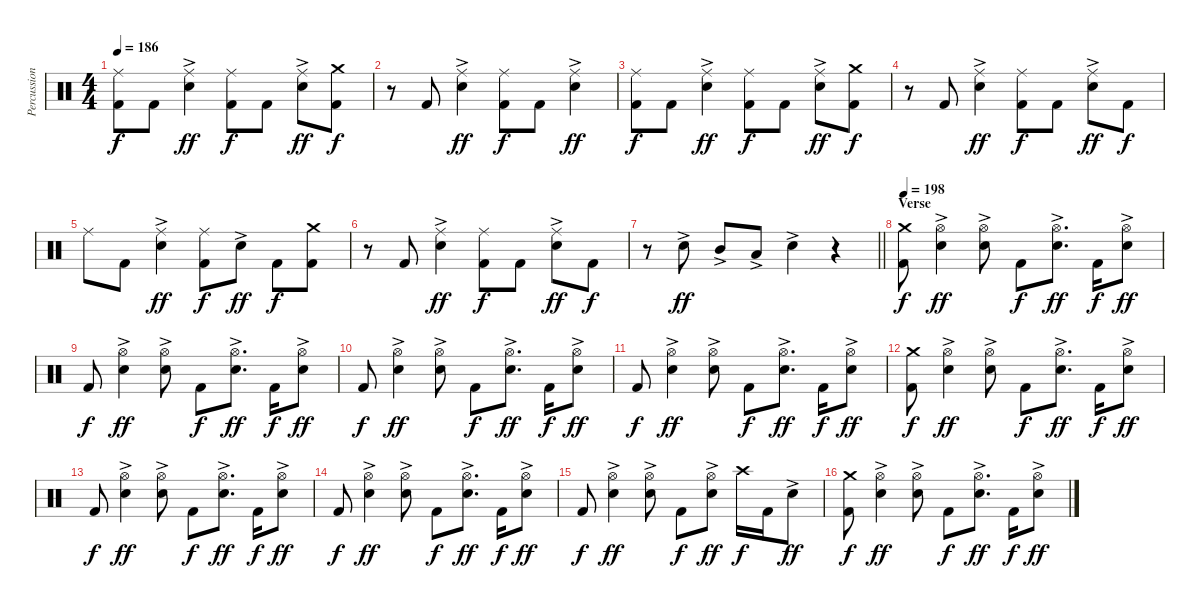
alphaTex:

\track ("Percussion" "Percussion") {instrument percussion}
\staff {score}
\articulation defaults
\ts (4 4)
\tempo 186
\clef neutral
\ks c
("Ride (middle)" "Kick (hit) 2").8{dy f} "Kick (hit) 2".8 ("Ride (middle)" "Electric Snare (hit)"{ac}).4{dy ff} ("Ride (middle)" "Kick (hit) 2").8{dy f} "Kick (hit) 2".8 ("Ride (middle)" "Electric Snare (hit)"{ac}).8{dy ff} ("Crash medium (hit)" "Kick (hit) 2").8{dy f} |
r.8 "Kick (hit) 2".8 ("Ride (middle)" "Electric Snare (hit)"{ac}).4{dy ff} ("Ride (middle)" "Kick (hit) 2").8{dy f} "Kick (hit) 2".8 ("Ride (middle)" "Electric Snare (hit)"{ac}).4{dy ff} |
("Ride (middle)" "Kick (hit) 2").8{dy f} "Kick (hit) 2".8 ("Ride (middle)" "Electric Snare (hit)"{ac}).4{dy ff} ("Ride (middle)" "Kick (hit) 2").8{dy f} "Kick (hit) 2".8 ("Ride (middle)" "Electric Snare (hit)"{ac}).8{dy ff} ("Crash medium (hit)" "Kick (hit) 2").8{dy f} |
r.8 "Kick (hit) 2".8 ("Ride (middle)" "Electric Snare (hit)"{ac}).4{dy ff} ("Ride (middle)" "Kick (hit) 2").8{dy f} "Kick (hit) 2".8 ("Ride (middle)" "Electric Snare (hit)"{ac}).8{dy ff} "Kick (hit) 2".8{dy f} |
"Ride (middle)".8 "Kick (hit) 2".8 ("Ride (middle)" "Electric Snare (hit)"{ac}).4{dy ff} ("Ride (middle)" "Kick (hit) 2").8{dy f} "Electric Snare (hit)"{ac}.8{dy ff} "Kick (hit) 2".8{dy f} ("Crash medium (hit)" "Kick (hit) 2").8 |
r.8 "Kick (hit) 2".8 ("Ride (middle)" "Electric Snare (hit)"{ac}).4{dy ff} ("Ride (middle)" "Kick (hit) 2").8{dy f} "Kick (hit) 2".8 ("Ride (middle)" "Electric Snare (hit)"{ac}).8{dy ff} "Kick (hit) 2".8{dy f} |
\barLineRight lightlight
r.8 "Electric Snare (hit)"{ac}.8{dy ff} "Mid Tom (hit)"{ac}.8 "Low Tom (hit)"{ac}.8 "Electric Snare (hit)"{ac}.4 r.4 |
\section ("" "Verse")
\tempo 198
("Crash medium (hit)" "Kick (hit) 2").8{dy f} ("Hi-Hat (open)" "Electric Snare (hit)"{ac}).4{dy ff} ("Hi-Hat (open)" "Electric Snare (hit)"{ac}).8 "Kick (hit) 2".8{dy f} ("Hi-Hat (open)" "Electric Snare (hit)"{ac}).8{d dy ff} "Kick (hit) 2".16{dy f} ("Hi-Hat (open)" "Electric Snare (hit)"{ac}).8{dy ff} |
"Kick (hit) 2".8{dy f} ("Hi-Hat (open)" "Electric Snare (hit)"{ac}).4{dy ff} ("Hi-Hat (open)" "Electric Snare (hit)"{ac}).8 "Kick (hit) 2".8{dy f} ("Hi-Hat (open)" "Electric Snare (hit)"{ac}).8{d dy ff} "Kick (hit) 2".16{dy f} ("Hi-Hat (open)" "Electric Snare (hit)"{ac}).8{dy ff} |
"Kick (hit) 2".8{dy f} ("Hi-Hat (open)" "Electric Snare (hit)"{ac}).4{dy ff} ("Hi-Hat (open)" "Electric Snare (hit)"{ac}).8 "Kick (hit) 2".8{dy f} ("Hi-Hat (open)" "Electric Snare (hit)"{ac}).8{d dy ff} "Kick (hit) 2".16{dy f} ("Hi-Hat (open)" "Electric Snare (hit)"{ac}).8{dy ff} |
"Kick (hit) 2".8{dy f} ("Hi-Hat (open)" "Electric Snare (hit)"{ac}).4{dy ff} ("Hi-Hat (open)" "Electric Snare (hit)"{ac}).8 "Kick (hit) 2".8{dy f} ("Hi-Hat (open)" "Electric Snare (hit)"{ac}).8{d dy ff} "Kick (hit) 2".16{dy f} ("Hi-Hat (open)" "Electric Snare (hit)"{ac}).8{dy ff} |
("Crash medium (hit)" "Kick (hit) 2").8{dy f} ("Hi-Hat (open)" "Electric Snare (hit)"{ac}).4{dy ff} ("Hi-Hat (open)" "Electric Snare (hit)"{ac}).8 "Kick (hit) 2".8{dy f} ("Hi-Hat (open)" "Electric Snare (hit)"{ac}).8{d dy ff} "Kick (hit) 2".16{dy f} ("Hi-Hat (open)" "Electric Snare (hit)"{ac}).8{dy ff} |
"Kick (hit) 2".8{dy f} ("Hi-Hat (open)" "Electric Snare (hit)"{ac}).4{dy ff} ("Hi-Hat (open)" "Electric Snare (hit)"{ac}).8 "Kick (hit) 2".8{dy f} ("Hi-Hat (open)" "Electric Snare (hit)"{ac}).8{d dy ff} "Kick (hit) 2".16{dy f} ("Hi-Hat (open)" "Electric Snare (hit)"{ac}).8{dy ff} |
"Kick (hit) 2".8{dy f} ("Hi-Hat (open)" "Electric Snare (hit)"{ac}).4{dy ff} ("Hi-Hat (open)" "Electric Snare (hit)"{ac}).8 "Kick (hit) 2".8{dy f} ("Hi-Hat (open)" "Electric Snare (hit)"{ac}).8{d dy ff} "Kick (hit) 2".16{dy f} ("Hi-Hat (open)" "Electric Snare (hit)"{ac}).8{dy ff} |
"Kick (hit) 2".8{dy f} ("Hi-Hat (open)" "Electric Snare (hit)"{ac}).4{dy ff} ("Hi-Hat (open)" "Electric Snare (hit)"{ac}).8 "Kick (hit) 2".8{dy f} ("Hi-Hat (open)" "Electric Snare (hit)"{ac}).8{dy ff} "Crash high (hit)".16{dy f} "Kick (hit) 2".16 "Electric Snare (hit)"{ac}.8{dy ff} |
("Crash medium (hit)" "Kick (hit) 2").8{dy f} ("Hi-Hat (open)" "Electric Snare (hit)"{ac}).4{dy ff} ("Hi-Hat (open)" "Electric Snare (hit)"{ac}).8 "Kick (hit) 2".8{dy f} ("Hi-Hat (open)" "Electric Snare (hit)"{ac}).8{d dy ff} "Kick (hit) 2".16{dy f} ("Hi-Hat (open)" "Electric Snare (hit)"{ac}).8{dy ff}
